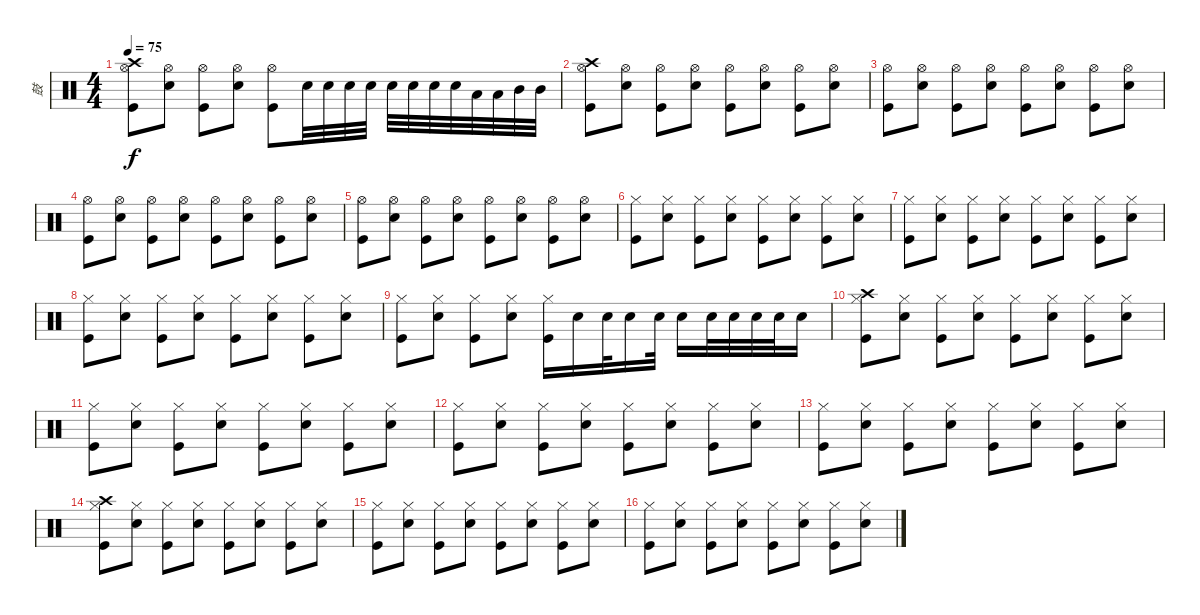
\track ("鼓" "鼓") {instrument percussion}
\staff {score}
\articulation defaults
\ts (4 4)
\tempo 75
\clef neutral
\ks c
("Crash high (hit)" "Hi-Hat (open)" "Kick (hit)").8{dy f} ("Hi-Hat (open)" "Electric Snare (hit)").8 ("Hi-Hat (open)" "Kick (hit)").8 ("Hi-Hat (open)" "Electric Snare (hit)").8 ("Hi-Hat (open)" "Kick (hit)").8 "Electric Snare (hit)".32 "Electric Snare (hit)".32 "Electric Snare (hit)".32 "Electric Snare (hit)".32 "Electric Snare (hit)".32 "Electric Snare (hit)".32 "Electric Snare (hit)".32 "Electric Snare (hit)".32 "Low Tom (hit)".32 "Low Tom (hit)".32 "Mid Tom (hit)".32 "Mid Tom (hit)".32 |
("Crash high (hit)" "Hi-Hat (open)" "Kick (hit)").8 ("Hi-Hat (open)" "Electric Snare (hit)").8 ("Hi-Hat (open)" "Kick (hit)").8 ("Hi-Hat (open)" "Electric Snare (hit)").8 ("Hi-Hat (open)" "Kick (hit)").8 ("Hi-Hat (open)" "Electric Snare (hit)").8 ("Hi-Hat (open)" "Kick (hit)").8 ("Hi-Hat (open)" "Electric Snare (hit)").8 |
("Hi-Hat (open)" "Kick (hit)").8 ("Hi-Hat (open)" "Electric Snare (hit)").8 ("Hi-Hat (open)" "Kick (hit)").8 ("Hi-Hat (open)" "Electric Snare (hit)").8 ("Hi-Hat (open)" "Kick (hit)").8 ("Hi-Hat (open)" "Electric Snare (hit)").8 ("Hi-Hat (open)" "Kick (hit)").8 ("Hi-Hat (open)" "Electric Snare (hit)").8 |
("Hi-Hat (open)" "Kick (hit)").8 ("Hi-Hat (open)" "Electric Snare (hit)").8 ("Hi-Hat (open)" "Kick (hit)").8 ("Hi-Hat (open)" "Electric Snare (hit)").8 ("Hi-Hat (open)" "Kick (hit)").8 ("Hi-Hat (open)" "Electric Snare (hit)").8 ("Hi-Hat (open)" "Kick (hit)").8 ("Hi-Hat (open)" "Electric Snare (hit)").8 |
("Hi-Hat (open)" "Kick (hit)").8 ("Hi-Hat (open)" "Electric Snare (hit)").8 ("Hi-Hat (open)" "Kick (hit)").8 ("Hi-Hat (open)" "Electric Snare (hit)").8 ("Hi-Hat (open)" "Kick (hit)").8 ("Hi-Hat (open)" "Electric Snare (hit)").8 ("Hi-Hat (open)" "Kick (hit)").8 ("Hi-Hat (open)" "Electric Snare (hit)").8 |
("Hi-Hat (closed)" "Kick (hit)").8 ("Hi-Hat (closed)" "Electric Snare (hit)").8 ("Hi-Hat (closed)" "Kick (hit)").8 ("Hi-Hat (closed)" "Electric Snare (hit)").8 ("Hi-Hat (closed)" "Kick (hit)").8 ("Hi-Hat (closed)" "Electric Snare (hit)").8 ("Hi-Hat (closed)" "Kick (hit)").8 ("Hi-Hat (closed)" "Electric Snare (hit)").8 |
("Hi-Hat (closed)" "Kick (hit)").8 ("Hi-Hat (closed)" "Electric Snare (hit)").8 ("Hi-Hat (closed)" "Kick (hit)").8 ("Hi-Hat (closed)" "Electric Snare (hit)").8 ("Hi-Hat (closed)" "Kick (hit)").8 ("Hi-Hat (closed)" "Electric Snare (hit)").8 ("Hi-Hat (closed)" "Kick (hit)").8 ("Hi-Hat (closed)" "Electric Snare (hit)").8 |
("Hi-Hat (closed)" "Kick (hit)").8 ("Hi-Hat (closed)" "Electric Snare (hit)").8 ("Hi-Hat (closed)" "Kick (hit)").8 ("Hi-Hat (closed)" "Electric Snare (hit)").8 ("Hi-Hat (closed)" "Kick (hit)").8 ("Hi-Hat (closed)" "Electric Snare (hit)").8 ("Hi-Hat (closed)" "Kick (hit)").8 ("Hi-Hat (closed)" "Electric Snare (hit)").8 |
("Hi-Hat (closed)" "Kick (hit)").8 ("Hi-Hat (closed)" "Electric Snare (hit)").8 ("Hi-Hat (closed)" "Kick (hit)").8 ("Hi-Hat (closed)" "Electric Snare (hit)").8 ("Hi-Hat (closed)" "Kick (hit)").16 "Electric Snare (hit)".16 "Electric Snare (hit)".32 "Electric Snare (hit)".16 "Electric Snare (hit)".32 "Electric Snare (hit)".16 "Electric Snare (hit)".32 "Electric Snare (hit)".32 "Electric Snare (hit)".32 "Electric Snare (hit)".32 "Electric Snare (hit)".16 |
("Crash high (hit)" "Hi-Hat (closed)" "Kick (hit)").8 ("Hi-Hat (closed)" "Electric Snare (hit)").8 ("Hi-Hat (closed)" "Kick (hit)").8 ("Hi-Hat (closed)" "Electric Snare (hit)").8 ("Hi-Hat (closed)" "Kick (hit)").8 ("Hi-Hat (closed)" "Electric Snare (hit)").8 ("Hi-Hat (closed)" "Kick (hit)").8 ("Hi-Hat (closed)" "Electric Snare (hit)").8 |
("Hi-Hat (closed)" "Kick (hit)").8 ("Hi-Hat (closed)" "Electric Snare (hit)").8 ("Hi-Hat (closed)" "Kick (hit)").8 ("Hi-Hat (closed)" "Electric Snare (hit)").8 ("Hi-Hat (closed)" "Kick (hit)").8 ("Hi-Hat (closed)" "Electric Snare (hit)").8 ("Hi-Hat (closed)" "Kick (hit)").8 ("Hi-Hat (closed)" "Electric Snare (hit)").8 |
("Hi-Hat (closed)" "Kick (hit)").8 ("Hi-Hat (closed)" "Electric Snare (hit)").8 ("Hi-Hat (closed)" "Kick (hit)").8 ("Hi-Hat (closed)" "Electric Snare (hit)").8 ("Hi-Hat (closed)" "Kick (hit)").8 ("Hi-Hat (closed)" "Electric Snare (hit)").8 ("Hi-Hat (closed)" "Kick (hit)").8 ("Hi-Hat (closed)" "Electric Snare (hit)").8 |
("Hi-Hat (closed)" "Kick (hit)").8 ("Hi-Hat (closed)" "Electric Snare (hit)").8 ("Hi-Hat (closed)" "Kick (hit)").8 ("Hi-Hat (closed)" "Electric Snare (hit)").8 ("Hi-Hat (closed)" "Kick (hit)").8 ("Hi-Hat (closed)" "Electric Snare (hit)").8 ("Hi-Hat (closed)" "Kick (hit)").8 ("Hi-Hat (closed)" "Electric Snare (hit)").8 |
("Crash high (hit)" "Hi-Hat (closed)" "Kick (hit)").8 ("Hi-Hat (closed)" "Electric Snare (hit)").8 ("Hi-Hat (closed)" "Kick (hit)").8 ("Hi-Hat (closed)" "Electric Snare (hit)").8 ("Hi-Hat (closed)" "Kick (hit)").8 ("Hi-Hat (closed)" "Electric Snare (hit)").8 ("Hi-Hat (closed)" "Kick (hit)").8 ("Hi-Hat (closed)" "Electric Snare (hit)").8 |
("Hi-Hat (closed)" "Kick (hit)").8 ("Hi-Hat (closed)" "Electric Snare (hit)").8 ("Hi-Hat (closed)" "Kick (hit)").8 ("Hi-Hat (closed)" "Electric Snare (hit)").8 ("Hi-Hat (closed)" "Kick (hit)").8 ("Hi-Hat (closed)" "Electric Snare (hit)").8 ("Hi-Hat (closed)" "Kick (hit)").8 ("Hi-Hat (closed)" "Electric Snare (hit)").8 |
("Hi-Hat (closed)" "Kick (hit)").8 ("Hi-Hat (closed)" "Electric Snare (hit)").8 ("Hi-Hat (closed)" "Kick (hit)").8 ("Hi-Hat (closed)" "Electric Snare (hit)").8 ("Hi-Hat (closed)" "Kick (hit)").8 ("Hi-Hat (closed)" "Electric Snare (hit)").8 ("Hi-Hat (closed)" "Kick (hit)").8 ("Hi-Hat (closed)" "Electric Snare (hit)").8
